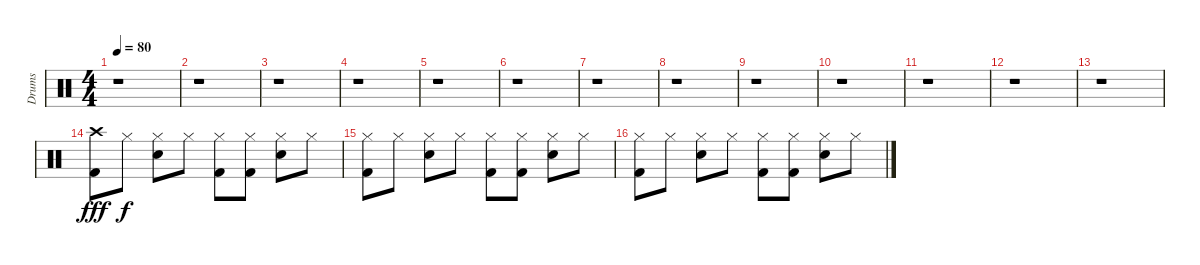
\track ("Drums" "Drums") {instrument percussion}
\staff {score}
\articulation defaults
\ts (4 4)
\tempo 80
\clef neutral
\ks c
r.1{dy fff} |
r.1 |
r.1 |
r.1 |
r.1 |
r.1 |
r.1 |
r.1 |
r.1 |
r.1 |
r.1 |
r.1 |
r.1 |
("Crash high (hit)" "Kick (hit) 2").8 "Hi-Hat (closed)".8{dy f} ("Hi-Hat (closed)" "Electric Snare (hit)").8 "Hi-Hat (closed)".8 ("Hi-Hat (closed)" "Kick (hit) 2").8 ("Hi-Hat (closed)" "Kick (hit) 2").8 ("Hi-Hat (closed)" "Electric Snare (hit)").8 "Hi-Hat (closed)".8 |
("Hi-Hat (closed)" "Kick (hit) 2").8 "Hi-Hat (closed)".8 ("Hi-Hat (closed)" "Electric Snare (hit)").8 "Hi-Hat (closed)".8 ("Hi-Hat (closed)" "Kick (hit) 2").8 ("Hi-Hat (closed)" "Kick (hit) 2").8 ("Hi-Hat (closed)" "Electric Snare (hit)").8 "Hi-Hat (closed)".8 |
("Hi-Hat (closed)" "Kick (hit) 2").8 "Hi-Hat (closed)".8 ("Hi-Hat (closed)" "Electric Snare (hit)").8 "Hi-Hat (closed)".8 ("Hi-Hat (closed)" "Kick (hit) 2").8 ("Hi-Hat (closed)" "Kick (hit) 2").8 ("Hi-Hat (closed)" "Electric Snare (hit)").8 "Hi-Hat (closed)".8
